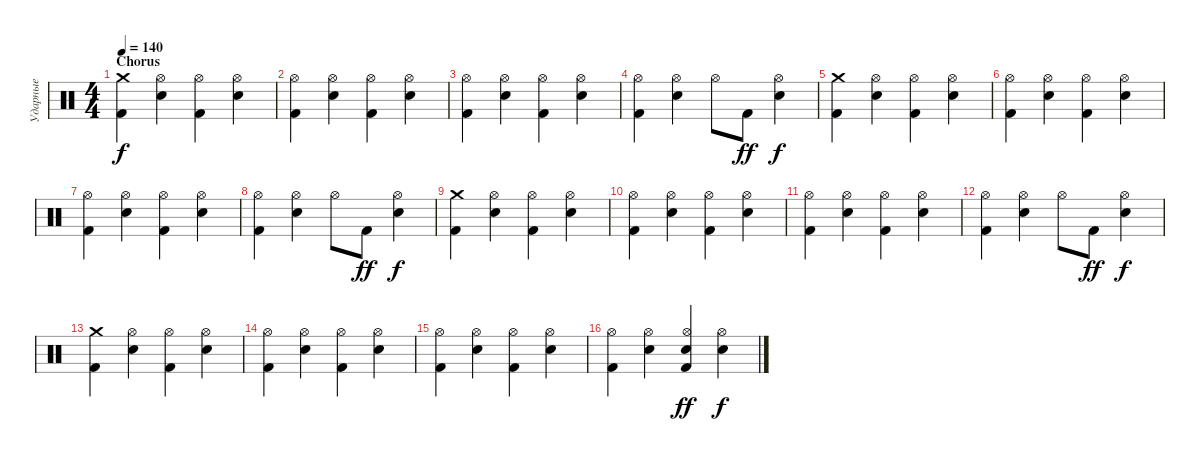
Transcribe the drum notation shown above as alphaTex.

\track ("Ударные" "Ударные") {instrument percussion}
\staff {score}
\articulation defaults
\ts (4 4)
\section ("" "Chorus ")
\tempo 140
\clef neutral
\ks c
("Crash medium (hit)" "Kick (hit) 2").4{dy f} ("Hi-Hat (open)" "Electric Snare (hit)").4 ("Hi-Hat (open)" "Kick (hit) 2").4 ("Hi-Hat (open)" "Electric Snare (hit)").4 |
("Hi-Hat (open)" "Kick (hit) 2").4 ("Hi-Hat (open)" "Electric Snare (hit)").4 ("Hi-Hat (open)" "Kick (hit) 2").4 ("Hi-Hat (open)" "Electric Snare (hit)").4 |
("Hi-Hat (open)" "Kick (hit) 2").4 ("Hi-Hat (open)" "Electric Snare (hit)").4 ("Hi-Hat (open)" "Kick (hit) 2").4 ("Hi-Hat (open)" "Electric Snare (hit)").4 |
("Hi-Hat (open)" "Kick (hit) 2").4 ("Hi-Hat (open)" "Electric Snare (hit)").4 "Hi-Hat (open)".8 "Kick (hit) 2".8{dy ff} ("Hi-Hat (open)" "Electric Snare (hit)").4{dy f} |
("Crash medium (hit)" "Kick (hit) 2").4 ("Hi-Hat (open)" "Electric Snare (hit)").4 ("Hi-Hat (open)" "Kick (hit) 2").4 ("Hi-Hat (open)" "Electric Snare (hit)").4 |
("Hi-Hat (open)" "Kick (hit) 2").4 ("Hi-Hat (open)" "Electric Snare (hit)").4 ("Hi-Hat (open)" "Kick (hit) 2").4 ("Hi-Hat (open)" "Electric Snare (hit)").4 |
("Hi-Hat (open)" "Kick (hit) 2").4 ("Hi-Hat (open)" "Electric Snare (hit)").4 ("Hi-Hat (open)" "Kick (hit) 2").4 ("Hi-Hat (open)" "Electric Snare (hit)").4 |
("Hi-Hat (open)" "Kick (hit) 2").4 ("Hi-Hat (open)" "Electric Snare (hit)").4 "Hi-Hat (open)".8 "Kick (hit) 2".8{dy ff} ("Hi-Hat (open)" "Electric Snare (hit)").4{dy f} |
("Crash medium (hit)" "Kick (hit) 2").4 ("Hi-Hat (open)" "Electric Snare (hit)").4 ("Hi-Hat (open)" "Kick (hit) 2").4 ("Hi-Hat (open)" "Electric Snare (hit)").4 |
("Hi-Hat (open)" "Kick (hit) 2").4 ("Hi-Hat (open)" "Electric Snare (hit)").4 ("Hi-Hat (open)" "Kick (hit) 2").4 ("Hi-Hat (open)" "Electric Snare (hit)").4 |
("Hi-Hat (open)" "Kick (hit) 2").4 ("Hi-Hat (open)" "Electric Snare (hit)").4 ("Hi-Hat (open)" "Kick (hit) 2").4 ("Hi-Hat (open)" "Electric Snare (hit)").4 |
("Hi-Hat (open)" "Kick (hit) 2").4 ("Hi-Hat (open)" "Electric Snare (hit)").4 "Hi-Hat (open)".8 "Kick (hit) 2".8{dy ff} ("Hi-Hat (open)" "Electric Snare (hit)").4{dy f} |
("Crash medium (hit)" "Kick (hit) 2").4 ("Hi-Hat (open)" "Electric Snare (hit)").4 ("Hi-Hat (open)" "Kick (hit) 2").4 ("Hi-Hat (open)" "Electric Snare (hit)").4 |
("Hi-Hat (open)" "Kick (hit) 2").4 ("Hi-Hat (open)" "Electric Snare (hit)").4 ("Hi-Hat (open)" "Kick (hit) 2").4 ("Hi-Hat (open)" "Electric Snare (hit)").4 |
("Hi-Hat (open)" "Kick (hit) 2").4 ("Hi-Hat (open)" "Electric Snare (hit)").4 ("Hi-Hat (open)" "Kick (hit) 2").4 ("Hi-Hat (open)" "Electric Snare (hit)").4 |
("Hi-Hat (open)" "Kick (hit) 2").4 ("Hi-Hat (open)" "Electric Snare (hit)").4 ("Hi-Hat (open)" "Electric Snare (hit)" "Kick (hit) 2").4{dy ff} ("Hi-Hat (open)" "Electric Snare (hit)").4{dy f}
